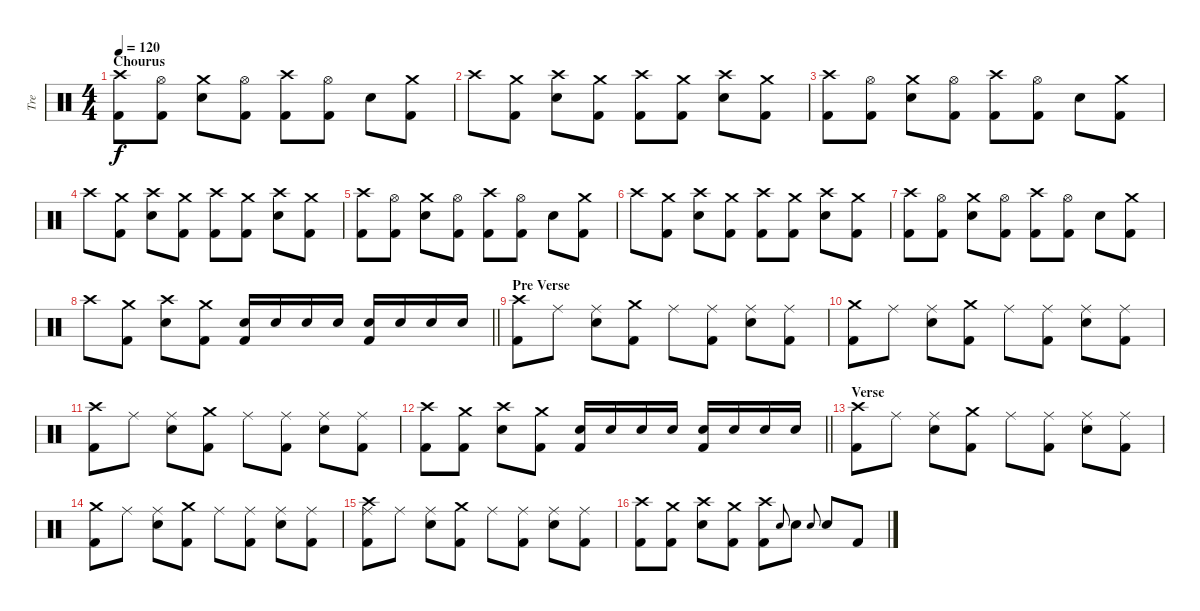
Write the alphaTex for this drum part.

\track ("Tre" "Tre") {instrument percussion}
\staff {score}
\articulation defaults
\ts (4 4)
\section ("" "Chourus")
\tempo 120
\clef neutral
\ks c
("Crash high (hit)" "Kick (hit) 2").8{dy f} ("Hi-Hat (open)" "Kick (hit) 2").8 ("Crash medium (hit)" "Snare (hit) 2").8 ("Hi-Hat (open)" "Kick (hit) 2").8 ("Crash high (hit)" "Kick (hit) 2").8 ("Hi-Hat (open)" "Kick (hit) 2").8 "Snare (hit) 2".8 ("Crash medium (hit)" "Kick (hit) 2").8 |
"Crash high (hit)".8 ("Crash medium (hit)" "Kick (hit) 2").8 ("Crash high (hit)" "Snare (hit) 2").8 ("Crash medium (hit)" "Kick (hit) 2").8 ("Crash high (hit)" "Kick (hit) 2").8 ("Crash medium (hit)" "Kick (hit) 2").8 ("Crash high (hit)" "Snare (hit) 2").8 ("Crash medium (hit)" "Kick (hit) 2").8 |
("Crash high (hit)" "Kick (hit) 2").8 ("Hi-Hat (open)" "Kick (hit) 2").8 ("Crash medium (hit)" "Snare (hit) 2").8 ("Hi-Hat (open)" "Kick (hit) 2").8 ("Crash high (hit)" "Kick (hit) 2").8 ("Hi-Hat (open)" "Kick (hit) 2").8 "Snare (hit) 2".8 ("Crash medium (hit)" "Kick (hit) 2").8 |
"Crash high (hit)".8 ("Crash medium (hit)" "Kick (hit) 2").8 ("Crash high (hit)" "Snare (hit) 2").8 ("Crash medium (hit)" "Kick (hit) 2").8 ("Crash high (hit)" "Kick (hit) 2").8 ("Crash medium (hit)" "Kick (hit) 2").8 ("Crash high (hit)" "Snare (hit) 2").8 ("Crash medium (hit)" "Kick (hit) 2").8 |
("Crash high (hit)" "Kick (hit) 2").8 ("Hi-Hat (open)" "Kick (hit) 2").8 ("Crash medium (hit)" "Snare (hit) 2").8 ("Hi-Hat (open)" "Kick (hit) 2").8 ("Crash high (hit)" "Kick (hit) 2").8 ("Hi-Hat (open)" "Kick (hit) 2").8 "Snare (hit) 2".8 ("Crash medium (hit)" "Kick (hit) 2").8 |
"Crash high (hit)".8 ("Crash medium (hit)" "Kick (hit) 2").8 ("Crash high (hit)" "Snare (hit) 2").8 ("Crash medium (hit)" "Kick (hit) 2").8 ("Crash high (hit)" "Kick (hit) 2").8 ("Crash medium (hit)" "Kick (hit) 2").8 ("Crash high (hit)" "Snare (hit) 2").8 ("Crash medium (hit)" "Kick (hit) 2").8 |
("Crash high (hit)" "Kick (hit) 2").8 ("Hi-Hat (open)" "Kick (hit) 2").8 ("Crash medium (hit)" "Snare (hit) 2").8 ("Hi-Hat (open)" "Kick (hit) 2").8 ("Crash high (hit)" "Kick (hit) 2").8 ("Hi-Hat (open)" "Kick (hit) 2").8 "Snare (hit) 2".8 ("Crash medium (hit)" "Kick (hit) 2").8 |
\barLineRight lightlight "Crash high (hit)".8
("Crash medium (hit)" "Kick (hit) 2").8 ("Crash high (hit)" "Snare (hit) 2").8 ("Crash medium (hit)" "Kick (hit) 2").8 ("Snare (hit) 2" "Kick (hit) 2").16 "Snare (hit) 2".16 "Snare (hit) 2".16 "Snare (hit) 2".16 ("Snare (hit) 2" "Kick (hit) 2").16 "Snare (hit) 2".16 "Snare (hit) 2".16 "Snare (hit) 2".16 |
\section ("" "Pre Verse")
("Crash high (hit)" "Kick (hit) 2").8 "Ride (middle)".8 ("Ride (middle)" "Snare (hit) 2").8 ("Crash medium (hit)" "Kick (hit) 2").8 "Ride (middle)".8 ("Ride (middle)" "Kick (hit) 2").8 ("Ride (middle)" "Snare (hit) 2").8 ("Ride (middle)" "Kick (hit) 2").8 |
("Crash medium (hit)" "Kick (hit) 2").8 "Ride (middle)".8 ("Ride (middle)" "Snare (hit) 2").8 ("Crash medium (hit)" "Kick (hit) 2").8 "Ride (middle)".8 ("Ride (middle)" "Kick (hit) 2").8 ("Ride (middle)" "Snare (hit) 2").8 ("Ride (middle)" "Kick (hit) 2").8 |
("Crash high (hit)" "Kick (hit) 2").8 "Ride (middle)".8 ("Ride (middle)" "Snare (hit) 2").8 ("Crash medium (hit)" "Kick (hit) 2").8 "Ride (middle)".8 ("Ride (middle)" "Kick (hit) 2").8 ("Ride (middle)" "Snare (hit) 2").8 ("Ride (middle)" "Kick (hit) 2").8 |
\barLineRight lightlight
("Crash high (hit)" "Kick (hit) 2").8 ("Crash medium (hit)" "Kick (hit) 2").8 ("Crash high (hit)" "Snare (hit) 2").8 ("Crash medium (hit)" "Kick (hit) 2").8 ("Snare (hit) 2" "Kick (hit) 2").16 "Snare (hit) 2".16 "Snare (hit) 2".16 "Snare (hit) 2".16 ("Snare (hit) 2" "Kick (hit) 2").16 "Snare (hit) 2".16 "Snare (hit) 2".16 "Snare (hit) 2".16 |
\section ("" "Verse")
("Crash high (hit)" "Kick (hit) 2").8 "Ride (middle)".8 ("Ride (middle)" "Snare (hit) 2").8 ("Crash medium (hit)" "Kick (hit) 2").8 "Ride (middle)".8 ("Ride (middle)" "Kick (hit) 2").8 ("Ride (middle)" "Snare (hit) 2").8 ("Ride (middle)" "Kick (hit) 2").8 |
("Crash medium (hit)" "Kick (hit) 2").8 "Ride (middle)".8 ("Ride (middle)" "Snare (hit) 2").8 ("Crash medium (hit)" "Kick (hit) 2").8 "Ride (middle)".8 ("Ride (middle)" "Kick (hit) 2").8 ("Ride (middle)" "Snare (hit) 2").8 ("Ride (middle)" "Kick (hit) 2").8 |
("Crash high (hit)" "Ride (middle)" "Kick (hit) 2").8 "Ride (middle)".8 ("Ride (middle)" "Snare (hit) 2").8 ("Crash medium (hit)" "Kick (hit) 2").8 "Ride (middle)".8 ("Ride (middle)" "Kick (hit) 2").8 ("Ride (middle)" "Snare (hit) 2").8 ("Ride (middle)" "Kick (hit) 2").8 |
("Crash high (hit)" "Kick (hit) 2").8 ("Crash medium (hit)" "Kick (hit) 2").8 ("Crash high (hit)" "Snare (hit) 2").8 ("Crash medium (hit)" "Kick (hit) 2").8 ("Crash high (hit)" "Kick (hit) 2").8 "Snare (hit) 2".8{gr onbeat} "Snare (hit) 2".8 "Snare (hit) 2".8{gr onbeat} "Snare (hit) 2".8 "Kick (hit) 2".8
